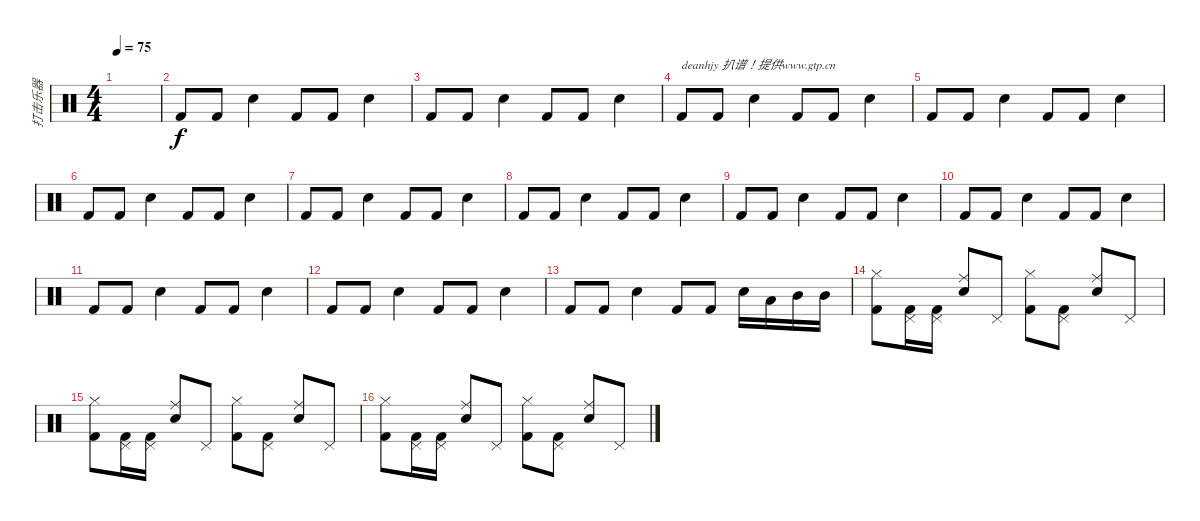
\track ("打击乐器" "打击乐器") {instrument percussion}
\staff {score}
\articulation defaults
\ts (4 4)
\tempo 75
\clef neutral
\ks c
|
"Kick (hit) 2".8 "Kick (hit) 2".8 "Snare (hit) 2".4 "Kick (hit) 2".8 "Kick (hit) 2".8 "Snare (hit) 2".4 |
"Kick (hit) 2".8 "Kick (hit) 2".8 "Snare (hit) 2".4 "Kick (hit) 2".8 "Kick (hit) 2".8 "Snare (hit) 2".4 |
"Kick (hit) 2".8{txt "deanhjy 扒谱！提供www.gtp.cn"} "Kick (hit) 2".8 "Snare (hit) 2".4 "Kick (hit) 2".8 "Kick (hit) 2".8 "Snare (hit) 2".4 |
"Kick (hit) 2".8 "Kick (hit) 2".8 "Snare (hit) 2".4 "Kick (hit) 2".8 "Kick (hit) 2".8 "Snare (hit) 2".4 |
"Kick (hit) 2".8 "Kick (hit) 2".8 "Snare (hit) 2".4 "Kick (hit) 2".8 "Kick (hit) 2".8 "Snare (hit) 2".4 |
"Kick (hit) 2".8 "Kick (hit) 2".8 "Snare (hit) 2".4 "Kick (hit) 2".8 "Kick (hit) 2".8 "Snare (hit) 2".4 |
"Kick (hit) 2".8 "Kick (hit) 2".8 "Snare (hit) 2".4 "Kick (hit) 2".8 "Kick (hit) 2".8 "Snare (hit) 2".4 |
"Kick (hit) 2".8 "Kick (hit) 2".8 "Snare (hit) 2".4 "Kick (hit) 2".8 "Kick (hit) 2".8 "Snare (hit) 2".4 |
"Kick (hit) 2".8 "Kick (hit) 2".8 "Snare (hit) 2".4 "Kick (hit) 2".8 "Kick (hit) 2".8 "Snare (hit) 2".4 |
"Kick (hit) 2".8 "Kick (hit) 2".8 "Snare (hit) 2".4 "Kick (hit) 2".8 "Kick (hit) 2".8 "Snare (hit) 2".4 |
"Kick (hit) 2".8 "Kick (hit) 2".8 "Snare (hit) 2".4 "Kick (hit) 2".8 "Kick (hit) 2".8 "Snare (hit) 2".4 |
"Kick (hit) 2".8 "Kick (hit) 2".8 "Snare (hit) 2".4 "Kick (hit) 2".8 "Kick (hit) 2".8 "Snare (hit) 2".16 "Low Tom (hit)".16 "Mid Tom (hit)".16 "Mid Tom (hit)".16 |
("Hi-Hat (closed)" "Kick (hit) 2").8 ("Pedal Hi-Hat (hit)" "Kick (hit) 2").16 ("Pedal Hi-Hat (hit)" "Kick (hit) 2").16 ("Ride (middle)" "Electric Snare (hit)").8 "Pedal Hi-Hat (hit)".8 ("Hi-Hat (closed)" "Kick (hit) 2").8 ("Pedal Hi-Hat (hit)" "Kick (hit) 2").8 ("Ride (middle)" "Electric Snare (hit)").8 "Pedal Hi-Hat (hit)".8 |
("Hi-Hat (closed)" "Kick (hit) 2").8 ("Pedal Hi-Hat (hit)" "Kick (hit) 2").16 ("Pedal Hi-Hat (hit)" "Kick (hit) 2").16 ("Ride (middle)" "Electric Snare (hit)").8 "Pedal Hi-Hat (hit)".8 ("Hi-Hat (closed)" "Kick (hit) 2").8 ("Pedal Hi-Hat (hit)" "Kick (hit) 2").8 ("Ride (middle)" "Electric Snare (hit)").8 "Pedal Hi-Hat (hit)".8 |
("Hi-Hat (closed)" "Kick (hit) 2").8 ("Pedal Hi-Hat (hit)" "Kick (hit) 2").16 ("Pedal Hi-Hat (hit)" "Kick (hit) 2").16 ("Ride (middle)" "Electric Snare (hit)").8 "Pedal Hi-Hat (hit)".8 ("Hi-Hat (closed)" "Kick (hit) 2").8 ("Pedal Hi-Hat (hit)" "Kick (hit) 2").8 ("Ride (middle)" "Electric Snare (hit)").8 "Pedal Hi-Hat (hit)".8
